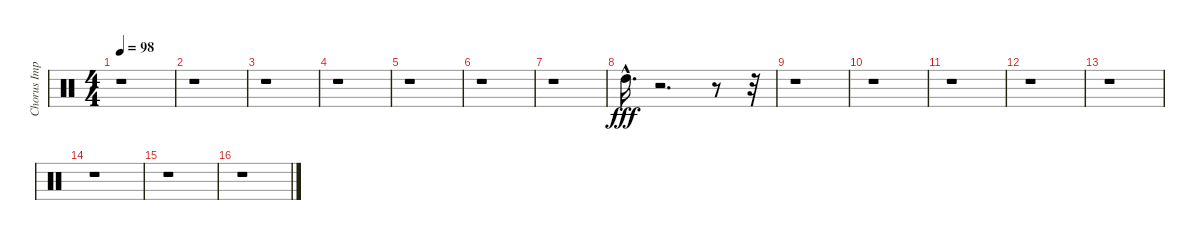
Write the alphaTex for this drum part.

\track ("Chorus Impact Drum" "Chorus Imp") {instrument percussion}
\staff {score}
\articulation defaults
\ts (4 4)
\tempo 98
\clef neutral
\ks c
r.1{dy fff} |
r.1 |
r.1 |
r.1 |
r.1 |
r.1 |
r.1 |
"High Tom (hit)"{hac}.16{d} r.2{d} r.8 r.32 |
r.1 |
r.1 |
r.1 |
r.1 |
r.1 |
r.1 |
r.1 |
r.1
